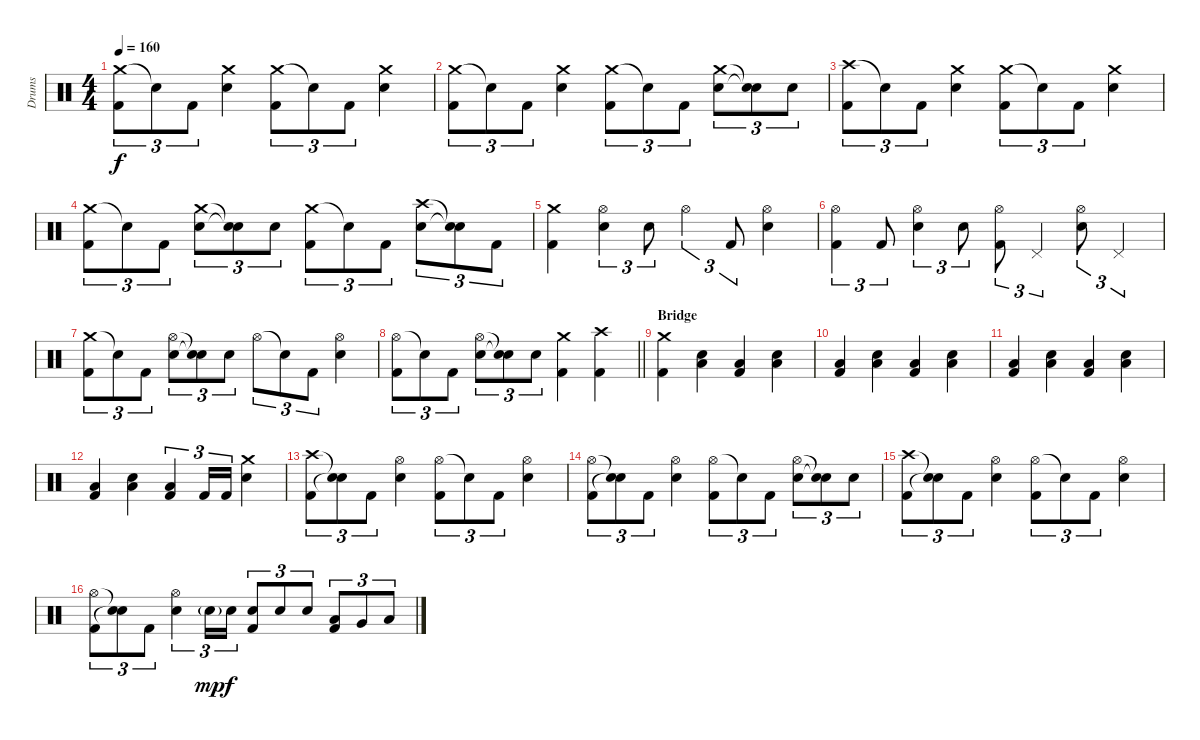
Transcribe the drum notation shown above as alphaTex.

\track ("Drums" "Drums") {instrument percussion}
\staff {score}
\articulation defaults
\ts (4 4)
\tempo 160
\clef neutral
\ks c
("Crash medium (hit)" "Kick (hit) 2").8{tu (3 2) dy f} "Snare (hit)"{t}.8{tu (3 2)} "Kick (hit) 2".8{tu (3 2)} ("Crash medium (hit)" "Electric Snare (hit)").4 ("Crash medium (hit)" "Kick (hit) 2").8{tu (3 2)} "Snare (hit)"{t}.8{tu (3 2)} "Kick (hit) 2".8{tu (3 2)} ("Crash medium (hit)" "Electric Snare (hit)").4 |
("Crash medium (hit)" "Kick (hit) 2").8{tu (3 2)} "Snare (hit)"{t}.8{tu (3 2)} "Kick (hit) 2".8{tu (3 2)} ("Crash medium (hit)" "Electric Snare (hit)").4 ("Crash medium (hit)" "Kick (hit) 2").8{tu (3 2)} "Snare (hit)"{t}.8{tu (3 2)} "Kick (hit) 2".8{tu (3 2)} ("Crash medium (hit)" "Electric Snare (hit)").8{tu (3 2)} ("Snare (hit)"{t} "Snare (hit)"{t}).8{tu (3 2)} "Electric Snare (hit)".8{tu (3 2)} |
("Crash high (hit)" "Kick (hit) 2").8{tu (3 2)} "Snare (hit)"{t}.8{tu (3 2)} "Kick (hit) 2".8{tu (3 2)} ("Crash medium (hit)" "Electric Snare (hit)").4 ("Crash medium (hit)" "Kick (hit) 2").8{tu (3 2)} "Snare (hit)"{t}.8{tu (3 2)} "Kick (hit) 2".8{tu (3 2)} ("Crash medium (hit)" "Electric Snare (hit)").4 |
("Crash medium (hit)" "Kick (hit) 2").8{tu (3 2)} "Snare (hit)"{t}.8{tu (3 2)} "Kick (hit) 2".8{tu (3 2)} ("Crash medium (hit)" "Electric Snare (hit)").8{tu (3 2)} ("Snare (hit)"{t} "Snare (hit)"{t}).8{tu (3 2)} "Electric Snare (hit)".8{tu (3 2)} ("Crash medium (hit)" "Kick (hit) 2").8{tu (3 2)} "Snare (hit)"{t}.8{tu (3 2)} "Kick (hit) 2".8{tu (3 2)} ("Crash high (hit)" "Electric Snare (hit)").8{tu (3 2)} ("Snare (hit)"{t} "Snare (hit)"{t}).8{tu (3 2)} "Kick (hit) 2".8{tu (3 2)} |
("Crash medium (hit)" "Kick (hit) 2").4 ("Hi-Hat (open)" "Electric Snare (hit)").4{tu (3 2)} "Electric Snare (hit)".8{tu (3 2)} "Hi-Hat (open)".4{tu (3 2)} "Kick (hit) 2".8{tu (3 2)} ("Hi-Hat (open)" "Electric Snare (hit)").4 |
("Hi-Hat (open)" "Kick (hit) 2").4{tu (3 2)} "Kick (hit) 2".8{tu (3 2)} ("Hi-Hat (open)" "Electric Snare (hit)").4{tu (3 2)} "Electric Snare (hit)".8{tu (3 2)} ("Hi-Hat (open)" "Kick (hit) 2").8{tu (3 2)} "Pedal Hi-Hat (hit)".4{tu (3 2)} ("Hi-Hat (open)" "Electric Snare (hit)").8{tu (3 2)} "Pedal Hi-Hat (hit)".4{tu (3 2)} |
("Crash medium (hit)" "Kick (hit) 2").8{tu (3 2)} "Snare (hit)"{t}.8{tu (3 2)} "Kick (hit) 2".8{tu (3 2)} ("Hi-Hat (open)" "Electric Snare (hit)").8{tu (3 2)} ("Snare (hit)"{t} "Snare (hit)"{t}).8{tu (3 2)} "Electric Snare (hit)".8{tu (3 2)} "Hi-Hat (open)".8{tu (3 2)} "Snare (hit)"{t}.8{tu (3 2)} "Kick (hit) 2".8{tu (3 2)} ("Hi-Hat (open)" "Electric Snare (hit)").4 |
\barLineRight lightlight
("Hi-Hat (open)" "Kick (hit) 2").8{tu (3 2)} "Snare (hit)"{t}.8{tu (3 2)} "Kick (hit) 2".8{tu (3 2)} ("Hi-Hat (open)" "Electric Snare (hit)").8{tu (3 2)} ("Snare (hit)"{t} "Snare (hit)"{t}).8{tu (3 2)} "Electric Snare (hit)".8{tu (3 2)} ("Crash medium (hit)" "Kick (hit) 2").4 ("Crash high (hit)" "Kick (hit) 2").4 |
\section ("" "Bridge")
("Crash medium (hit)" "Kick (hit) 2").4 ("Low Floor Tom (hit)" "Electric Snare (hit)").4 ("Low Floor Tom (hit)" "Kick (hit) 2").4 ("Low Floor Tom (hit)" "Electric Snare (hit)").4 |
("Low Floor Tom (hit)" "Kick (hit) 2").4 ("Low Floor Tom (hit)" "Electric Snare (hit)").4 ("Low Floor Tom (hit)" "Kick (hit) 2").4 ("Low Floor Tom (hit)" "Electric Snare (hit)").4 |
("Low Floor Tom (hit)" "Kick (hit) 2").4 ("Low Floor Tom (hit)" "Electric Snare (hit)").4 ("Low Floor Tom (hit)" "Kick (hit) 2").4 ("Low Floor Tom (hit)" "Electric Snare (hit)").4 |
("Low Floor Tom (hit)" "Kick (hit) 2").4 ("Low Floor Tom (hit)" "Electric Snare (hit)").4 ("Low Floor Tom (hit)" "Kick (hit) 2").4{tu (3 2)} "Kick (hit) 2".16{tu (3 2)} "Kick (hit) 2".16{tu (3 2)} ("Crash medium (hit)" "Electric Snare (hit)").4 |
("Crash high (hit)" "Kick (hit) 2").8{tu (3 2)} ("Snare (hit)"{t} "Snare (hit)"{t}).8{tu (3 2)} "Kick (hit) 2".8{tu (3 2)} ("Hi-Hat (open)" "Electric Snare (hit)").4 ("Hi-Hat (open)" "Kick (hit) 2").8{tu (3 2)} "Snare (hit)"{t}.8{tu (3 2)} "Kick (hit) 2".8{tu (3 2)} ("Hi-Hat (open)" "Electric Snare (hit)").4 |
("Hi-Hat (open)" "Kick (hit) 2").8{tu (3 2)} ("Snare (hit)"{t} "Snare (hit)"{t}).8{tu (3 2)} "Kick (hit) 2".8{tu (3 2)} ("Hi-Hat (open)" "Electric Snare (hit)").4 ("Hi-Hat (open)" "Kick (hit) 2").8{tu (3 2)} "Snare (hit)"{t}.8{tu (3 2)} "Kick (hit) 2".8{tu (3 2)} ("Hi-Hat (open)" "Electric Snare (hit)").8{tu (3 2)} ("Snare (hit)"{t} "Snare (hit)"{t}).8{tu (3 2)} "Electric Snare (hit)".8{tu (3 2)} |
("Crash high (hit)" "Kick (hit) 2").8{tu (3 2)} ("Snare (hit)"{t} "Snare (hit)"{t}).8{tu (3 2)} "Kick (hit) 2".8{tu (3 2)} ("Hi-Hat (open)" "Electric Snare (hit)").4 ("Hi-Hat (open)" "Kick (hit) 2").8{tu (3 2)} "Snare (hit)"{t}.8{tu (3 2)} "Kick (hit) 2".8{tu (3 2)} ("Hi-Hat (open)" "Electric Snare (hit)").4 |
("Hi-Hat (open)" "Kick (hit) 2").8{tu (3 2)} ("Snare (hit)"{t} "Snare (hit)"{t}).8{tu (3 2)} "Kick (hit) 2".8{tu (3 2)} ("Hi-Hat (open)" "Electric Snare (hit)").4{tu (3 2)} "Electric Snare (hit)"{g}.16{tu (3 2) dy mp} "Electric Snare (hit)".16{tu (3 2) dy f} ("Electric Snare (hit)" "Kick (hit) 2").8{tu (3 2)} "Electric Snare (hit)".8{tu (3 2)} "Electric Snare (hit)".8{tu (3 2)} ("Low Tom (hit)" "Kick (hit) 2").8{tu (3 2)} "Very Low Tom (hit)".8{tu (3 2)} "Low Floor Tom (hit)".8{tu (3 2)}
